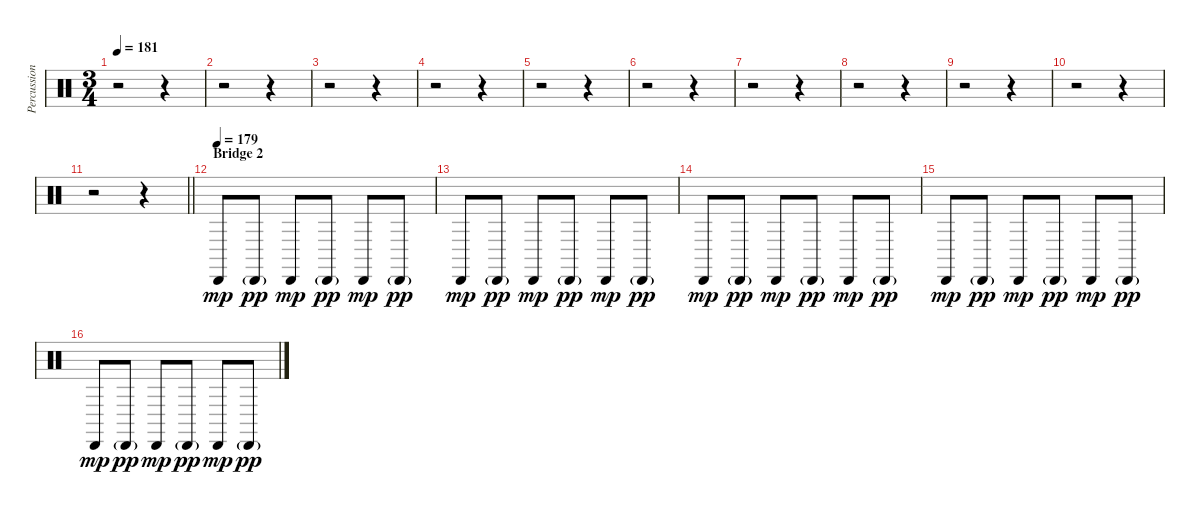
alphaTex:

\track ("Percussion" "Percussion") {instrument percussion}
\staff {score}
\articulation defaults
\ts (3 4)
\tempo 181
\clef neutral
\ks c
r.2{dy mp} r.4 |
r.2 r.4 |
r.2 r.4 |
r.2 r.4 |
r.2 r.4 |
r.2 r.4 |
r.2 r.4 |
r.2 r.4 |
r.2 r.4 |
r.2 r.4 |
\barLineRight lightlight
r.2 r.4 |
\section ("" "Bridge 2")
\tempo (179)
"Cabasa (hit)".8 "Cabasa (hit)"{g}.8{dy pp} "Cabasa (hit)".8{dy mp} "Cabasa (hit)"{g}.8{dy pp} "Cabasa (hit)".8{dy mp} "Cabasa (hit)"{g}.8{dy pp} |
"Cabasa (hit)".8{dy mp} "Cabasa (hit)"{g}.8{dy pp} "Cabasa (hit)".8{dy mp} "Cabasa (hit)"{g}.8{dy pp} "Cabasa (hit)".8{dy mp} "Cabasa (hit)"{g}.8{dy pp} |
"Cabasa (hit)".8{dy mp} "Cabasa (hit)"{g}.8{dy pp} "Cabasa (hit)".8{dy mp} "Cabasa (hit)"{g}.8{dy pp} "Cabasa (hit)".8{dy mp} "Cabasa (hit)"{g}.8{dy pp} |
"Cabasa (hit)".8{dy mp} "Cabasa (hit)"{g}.8{dy pp} "Cabasa (hit)".8{dy mp} "Cabasa (hit)"{g}.8{dy pp} "Cabasa (hit)".8{dy mp} "Cabasa (hit)"{g}.8{dy pp} |
"Cabasa (hit)".8{dy mp} "Cabasa (hit)"{g}.8{dy pp} "Cabasa (hit)".8{dy mp} "Cabasa (hit)"{g}.8{dy pp} "Cabasa (hit)".8{dy mp} "Cabasa (hit)"{g}.8{dy pp}
